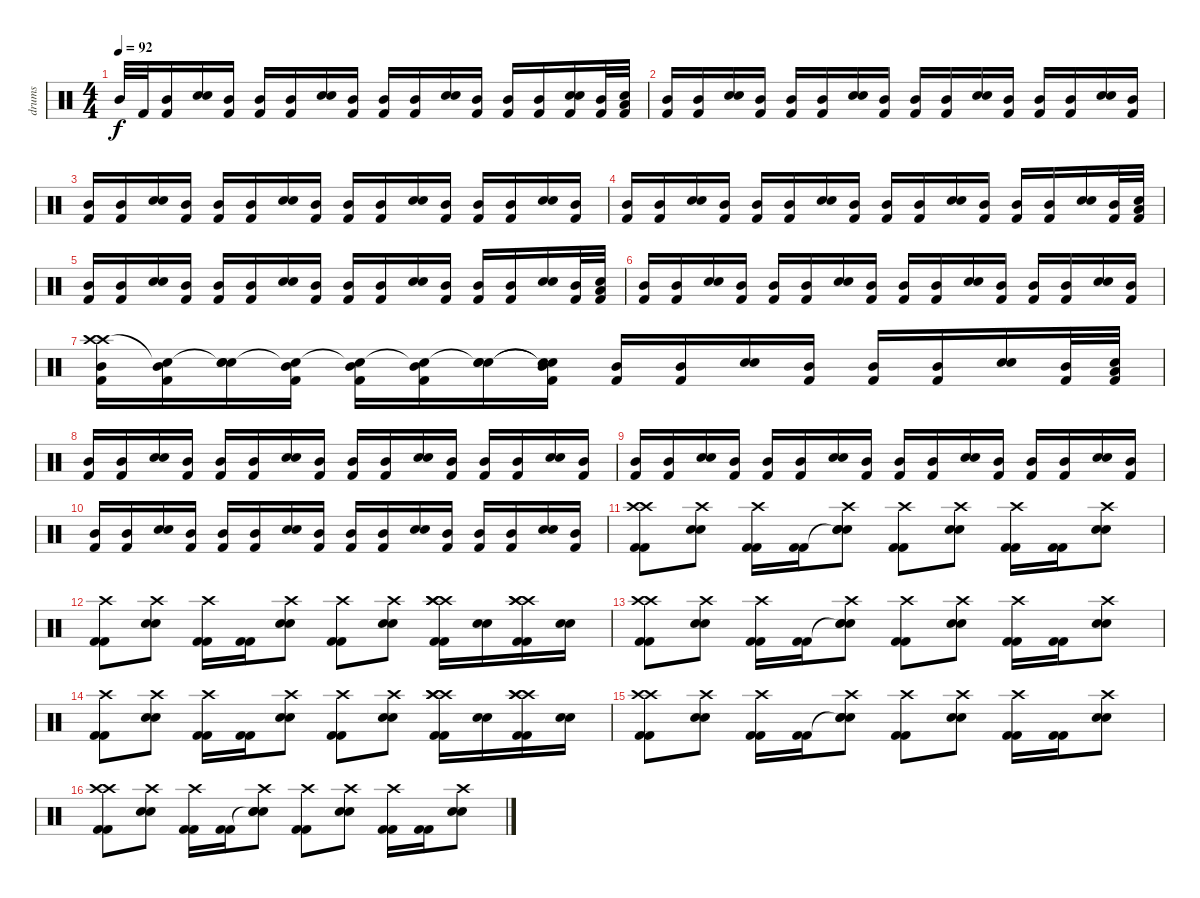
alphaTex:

\track ("drums" "drums") {instrument percussion}
\staff {score}
\articulation defaults
\ts (4 4)
\tempo 92
\clef neutral
\ks c "Mid Tom (hit)".32{dy f} "Kick (hit) 2".32
("Mid Tom (hit)" "Kick (hit) 2").16 ("Electric Snare (hit)" "Electric Snare (hit)").16 ("Mid Tom (hit)" "Kick (hit) 2").16 ("Mid Tom (hit)" "Kick (hit) 2").16 ("Mid Tom (hit)" "Kick (hit) 2").16 ("Electric Snare (hit)" "Electric Snare (hit)").16 ("Mid Tom (hit)" "Kick (hit) 2").16 ("Mid Tom (hit)" "Kick (hit) 2").16 ("Mid Tom (hit)" "Kick (hit) 2").16 ("Electric Snare (hit)" "Electric Snare (hit)").16 ("Mid Tom (hit)" "Kick (hit) 2").16 ("Mid Tom (hit)" "Kick (hit) 2").16 ("Mid Tom (hit)" "Kick (hit) 2").16 ("Electric Snare (hit)" "Electric Snare (hit)" "Kick (hit) 2").16 ("Mid Tom (hit)" "Kick (hit) 2").32 ("Low Tom (hit)" "Electric Snare (hit)" "Kick (hit) 2").32 |
("Mid Tom (hit)" "Kick (hit) 2").16 ("Mid Tom (hit)" "Kick (hit) 2").16 ("Electric Snare (hit)" "Electric Snare (hit)").16 ("Mid Tom (hit)" "Kick (hit) 2").16 ("Mid Tom (hit)" "Kick (hit) 2").16 ("Mid Tom (hit)" "Kick (hit) 2").16 ("Electric Snare (hit)" "Electric Snare (hit)").16 ("Mid Tom (hit)" "Kick (hit) 2").16 ("Mid Tom (hit)" "Kick (hit) 2").16 ("Mid Tom (hit)" "Kick (hit) 2").16 ("Electric Snare (hit)" "Electric Snare (hit)").16 ("Mid Tom (hit)" "Kick (hit) 2").16 ("Mid Tom (hit)" "Kick (hit) 2").16 ("Mid Tom (hit)" "Kick (hit) 2").16 ("Electric Snare (hit)" "Electric Snare (hit)").16 ("Mid Tom (hit)" "Kick (hit) 2").16 |
("Mid Tom (hit)" "Kick (hit) 2").16 ("Mid Tom (hit)" "Kick (hit) 2").16 ("Electric Snare (hit)" "Electric Snare (hit)").16 ("Mid Tom (hit)" "Kick (hit) 2").16 ("Mid Tom (hit)" "Kick (hit) 2").16 ("Mid Tom (hit)" "Kick (hit) 2").16 ("Electric Snare (hit)" "Electric Snare (hit)").16 ("Mid Tom (hit)" "Kick (hit) 2").16 ("Mid Tom (hit)" "Kick (hit) 2").16 ("Mid Tom (hit)" "Kick (hit) 2").16 ("Electric Snare (hit)" "Electric Snare (hit)").16 ("Mid Tom (hit)" "Kick (hit) 2").16 ("Mid Tom (hit)" "Kick (hit) 2").16 ("Mid Tom (hit)" "Kick (hit) 2").16 ("Electric Snare (hit)" "Electric Snare (hit)").16 ("Mid Tom (hit)" "Kick (hit) 2").16 |
("Mid Tom (hit)" "Kick (hit) 2").16 ("Mid Tom (hit)" "Kick (hit) 2").16 ("Electric Snare (hit)" "Electric Snare (hit)").16 ("Mid Tom (hit)" "Kick (hit) 2").16 ("Mid Tom (hit)" "Kick (hit) 2").16 ("Mid Tom (hit)" "Kick (hit) 2").16 ("Electric Snare (hit)" "Electric Snare (hit)").16 ("Mid Tom (hit)" "Kick (hit) 2").16 ("Mid Tom (hit)" "Kick (hit) 2").16 ("Mid Tom (hit)" "Kick (hit) 2").16 ("Electric Snare (hit)" "Electric Snare (hit)").16 ("Mid Tom (hit)" "Kick (hit) 2").16 ("Mid Tom (hit)" "Kick (hit) 2").16 ("Mid Tom (hit)" "Kick (hit) 2").16 ("Electric Snare (hit)" "Electric Snare (hit)").16 ("Mid Tom (hit)" "Kick (hit) 2").32 ("Low Tom (hit)" "Electric Snare (hit)" "Kick (hit) 2").32 |
("Mid Tom (hit)" "Kick (hit) 2").16 ("Mid Tom (hit)" "Kick (hit) 2").16 ("Electric Snare (hit)" "Electric Snare (hit)").16 ("Mid Tom (hit)" "Kick (hit) 2").16 ("Mid Tom (hit)" "Kick (hit) 2").16 ("Mid Tom (hit)" "Kick (hit) 2").16 ("Electric Snare (hit)" "Electric Snare (hit)").16 ("Mid Tom (hit)" "Kick (hit) 2").16 ("Mid Tom (hit)" "Kick (hit) 2").16 ("Mid Tom (hit)" "Kick (hit) 2").16 ("Electric Snare (hit)" "Electric Snare (hit)").16 ("Mid Tom (hit)" "Kick (hit) 2").16 ("Mid Tom (hit)" "Kick (hit) 2").16 ("Mid Tom (hit)" "Kick (hit) 2").16 ("Electric Snare (hit)" "Electric Snare (hit)").16 ("Mid Tom (hit)" "Kick (hit) 2").32 ("Low Tom (hit)" "Electric Snare (hit)" "Kick (hit) 2").32 |
("Mid Tom (hit)" "Kick (hit) 2").16 ("Mid Tom (hit)" "Kick (hit) 2").16 ("Electric Snare (hit)" "Electric Snare (hit)").16 ("Mid Tom (hit)" "Kick (hit) 2").16 ("Mid Tom (hit)" "Kick (hit) 2").16 ("Mid Tom (hit)" "Kick (hit) 2").16 ("Electric Snare (hit)" "Electric Snare (hit)").16 ("Mid Tom (hit)" "Kick (hit) 2").16 ("Mid Tom (hit)" "Kick (hit) 2").16 ("Mid Tom (hit)" "Kick (hit) 2").16 ("Electric Snare (hit)" "Electric Snare (hit)").16 ("Mid Tom (hit)" "Kick (hit) 2").16 ("Mid Tom (hit)" "Kick (hit) 2").16 ("Mid Tom (hit)" "Kick (hit) 2").16 ("Electric Snare (hit)" "Electric Snare (hit)").16 ("Mid Tom (hit)" "Kick (hit) 2").16 |
("Crash high (hit)" "Crash high (hit)" "Mid Tom (hit)" "Kick (hit) 2").16 ("Snare (hit)"{t} "Mid Tom (hit)" "Kick (hit) 2").16 ("Snare (hit)"{t} "Electric Snare (hit)" "Electric Snare (hit)").16 ("Snare (hit)"{t} "Mid Tom (hit)" "Kick (hit) 2").16 ("Snare (hit)"{t} "Mid Tom (hit)" "Kick (hit) 2").16 ("Snare (hit)"{t} "Mid Tom (hit)" "Kick (hit) 2").16 ("Snare (hit)"{t} "Electric Snare (hit)" "Electric Snare (hit)").16 ("Snare (hit)"{t} "Snare (hit)"{t} "Mid Tom (hit)" "Kick (hit) 2").16 ("Mid Tom (hit)" "Kick (hit) 2").16 ("Mid Tom (hit)" "Kick (hit) 2").16 ("Electric Snare (hit)" "Electric Snare (hit)").16 ("Mid Tom (hit)" "Kick (hit) 2").16 ("Mid Tom (hit)" "Kick (hit) 2").16 ("Mid Tom (hit)" "Kick (hit) 2").16 ("Electric Snare (hit)" "Electric Snare (hit)").16 ("Mid Tom (hit)" "Kick (hit) 2").32 ("Low Tom (hit)" "Electric Snare (hit)" "Kick (hit) 2").32 |
("Mid Tom (hit)" "Kick (hit) 2").16 ("Mid Tom (hit)" "Kick (hit) 2").16 ("Electric Snare (hit)" "Electric Snare (hit)").16 ("Mid Tom (hit)" "Kick (hit) 2").16 ("Mid Tom (hit)" "Kick (hit) 2").16 ("Mid Tom (hit)" "Kick (hit) 2").16 ("Electric Snare (hit)" "Electric Snare (hit)").16 ("Mid Tom (hit)" "Kick (hit) 2").16 ("Mid Tom (hit)" "Kick (hit) 2").16 ("Mid Tom (hit)" "Kick (hit) 2").16 ("Electric Snare (hit)" "Electric Snare (hit)").16 ("Mid Tom (hit)" "Kick (hit) 2").16 ("Mid Tom (hit)" "Kick (hit) 2").16 ("Mid Tom (hit)" "Kick (hit) 2").16 ("Electric Snare (hit)" "Electric Snare (hit)").16 ("Mid Tom (hit)" "Kick (hit) 2").16 |
("Mid Tom (hit)" "Kick (hit) 2").16 ("Mid Tom (hit)" "Kick (hit) 2").16 ("Electric Snare (hit)" "Electric Snare (hit)").16 ("Mid Tom (hit)" "Kick (hit) 2").16 ("Mid Tom (hit)" "Kick (hit) 2").16 ("Mid Tom (hit)" "Kick (hit) 2").16 ("Electric Snare (hit)" "Electric Snare (hit)").16 ("Mid Tom (hit)" "Kick (hit) 2").16 ("Mid Tom (hit)" "Kick (hit) 2").16 ("Mid Tom (hit)" "Kick (hit) 2").16 ("Electric Snare (hit)" "Electric Snare (hit)").16 ("Mid Tom (hit)" "Kick (hit) 2").16 ("Mid Tom (hit)" "Kick (hit) 2").16 ("Mid Tom (hit)" "Kick (hit) 2").16 ("Electric Snare (hit)" "Electric Snare (hit)").16 ("Mid Tom (hit)" "Kick (hit) 2").16 |
("Mid Tom (hit)" "Kick (hit) 2").16 ("Mid Tom (hit)" "Kick (hit) 2").16 ("Electric Snare (hit)" "Electric Snare (hit)").16 ("Mid Tom (hit)" "Kick (hit) 2").16 ("Mid Tom (hit)" "Kick (hit) 2").16 ("Mid Tom (hit)" "Kick (hit) 2").16 ("Electric Snare (hit)" "Electric Snare (hit)").16 ("Mid Tom (hit)" "Kick (hit) 2").16 ("Mid Tom (hit)" "Kick (hit) 2").16 ("Mid Tom (hit)" "Kick (hit) 2").16 ("Electric Snare (hit)" "Electric Snare (hit)").16 ("Mid Tom (hit)" "Kick (hit) 2").16 ("Mid Tom (hit)" "Kick (hit) 2").16 ("Mid Tom (hit)" "Kick (hit) 2").16 ("Electric Snare (hit)" "Electric Snare (hit)").16 ("Mid Tom (hit)" "Kick (hit) 2").16 |
("Crash high (hit)" "Crash high (hit)" "Kick (hit) 2" "Kick (hit) 2").8 ("Crash high (hit)" "Electric Snare (hit)" "Electric Snare (hit)").8 ("Crash high (hit)" "Kick (hit) 2" "Kick (hit) 2").16 ("Kick (hit) 2" "Kick (hit) 2").16 ("Crash high (hit)" "Snare (hit)"{t} "Electric Snare (hit)" "Electric Snare (hit)").8 ("Crash high (hit)" "Kick (hit) 2" "Kick (hit) 2").8 ("Crash high (hit)" "Electric Snare (hit)" "Electric Snare (hit)").8 ("Crash high (hit)" "Kick (hit) 2" "Kick (hit) 2").16 ("Kick (hit) 2" "Kick (hit) 2").16 ("Crash high (hit)" "Electric Snare (hit)" "Electric Snare (hit)").8 |
("Crash high (hit)" "Kick (hit) 2" "Kick (hit) 2").8 ("Crash high (hit)" "Electric Snare (hit)" "Electric Snare (hit)").8 ("Crash high (hit)" "Kick (hit) 2" "Kick (hit) 2").16 ("Kick (hit) 2" "Kick (hit) 2").16 ("Crash high (hit)" "Electric Snare (hit)" "Electric Snare (hit)").8 ("Crash high (hit)" "Kick (hit) 2" "Kick (hit) 2").8 ("Crash high (hit)" "Electric Snare (hit)" "Electric Snare (hit)").8 ("Crash high (hit)" "Crash high (hit)" "Crash high (hit)" "Kick (hit) 2" "Kick (hit) 2").16 ("Electric Snare (hit)" "Electric Snare (hit)").16 ("Crash high (hit)" "Crash high (hit)" "Crash high (hit)" "Kick (hit) 2" "Kick (hit) 2").16 ("Electric Snare (hit)" "Electric Snare (hit)").16 |
("Crash high (hit)" "Crash high (hit)" "Kick (hit) 2" "Kick (hit) 2").8 ("Crash high (hit)" "Electric Snare (hit)" "Electric Snare (hit)").8 ("Crash high (hit)" "Kick (hit) 2" "Kick (hit) 2").16 ("Kick (hit) 2" "Kick (hit) 2").16 ("Crash high (hit)" "Snare (hit)"{t} "Electric Snare (hit)" "Electric Snare (hit)").8 ("Crash high (hit)" "Kick (hit) 2" "Kick (hit) 2").8 ("Crash high (hit)" "Electric Snare (hit)" "Electric Snare (hit)").8 ("Crash high (hit)" "Kick (hit) 2" "Kick (hit) 2").16 ("Kick (hit) 2" "Kick (hit) 2").16 ("Crash high (hit)" "Electric Snare (hit)" "Electric Snare (hit)").8 |
("Crash high (hit)" "Kick (hit) 2" "Kick (hit) 2").8 ("Crash high (hit)" "Electric Snare (hit)" "Electric Snare (hit)").8 ("Crash high (hit)" "Kick (hit) 2" "Kick (hit) 2").16 ("Kick (hit) 2" "Kick (hit) 2").16 ("Crash high (hit)" "Electric Snare (hit)" "Electric Snare (hit)").8 ("Crash high (hit)" "Kick (hit) 2" "Kick (hit) 2").8 ("Crash high (hit)" "Electric Snare (hit)" "Electric Snare (hit)").8 ("Crash high (hit)" "Crash high (hit)" "Crash high (hit)" "Kick (hit) 2" "Kick (hit) 2").16 ("Electric Snare (hit)" "Electric Snare (hit)").16 ("Crash high (hit)" "Crash high (hit)" "Crash high (hit)" "Kick (hit) 2" "Kick (hit) 2").16 ("Electric Snare (hit)" "Electric Snare (hit)").16 |
("Crash high (hit)" "Crash high (hit)" "Kick (hit) 2" "Kick (hit) 2").8 ("Crash high (hit)" "Electric Snare (hit)" "Electric Snare (hit)").8 ("Crash high (hit)" "Kick (hit) 2" "Kick (hit) 2").16 ("Kick (hit) 2" "Kick (hit) 2").16 ("Crash high (hit)" "Snare (hit)"{t} "Electric Snare (hit)" "Electric Snare (hit)").8 ("Crash high (hit)" "Kick (hit) 2" "Kick (hit) 2").8 ("Crash high (hit)" "Electric Snare (hit)" "Electric Snare (hit)").8 ("Crash high (hit)" "Kick (hit) 2" "Kick (hit) 2").16 ("Kick (hit) 2" "Kick (hit) 2").16 ("Crash high (hit)" "Electric Snare (hit)" "Electric Snare (hit)").8 |
("Crash high (hit)" "Crash high (hit)" "Kick (hit) 2" "Kick (hit) 2").8 ("Crash high (hit)" "Electric Snare (hit)" "Electric Snare (hit)").8 ("Crash high (hit)" "Kick (hit) 2" "Kick (hit) 2").16 ("Kick (hit) 2" "Kick (hit) 2").16 ("Crash high (hit)" "Snare (hit)"{t} "Electric Snare (hit)" "Electric Snare (hit)").8 ("Crash high (hit)" "Kick (hit) 2" "Kick (hit) 2").8 ("Crash high (hit)" "Electric Snare (hit)" "Electric Snare (hit)").8 ("Crash high (hit)" "Kick (hit) 2" "Kick (hit) 2").16 ("Kick (hit) 2" "Kick (hit) 2").16 ("Crash high (hit)" "Electric Snare (hit)" "Electric Snare (hit)").8
